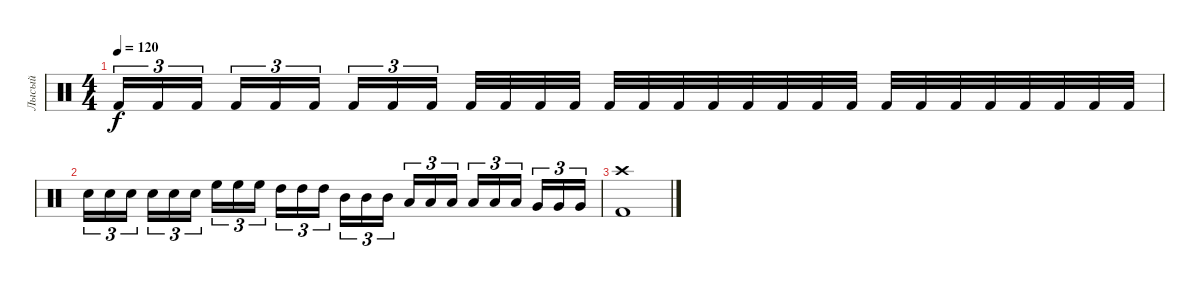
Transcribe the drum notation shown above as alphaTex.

\track ("Лысый" "Лысый") {instrument percussion}
\staff {score}
\articulation defaults
\ts (4 4)
\tempo 120
\clef neutral
\ks c "Kick (hit) 2".16{tu (3 2) dy f} "Kick (hit) 2".16{tu (3 2)} "Kick (hit) 2".16{tu (3 2) beam splitsecondary} "Kick (hit) 2".16{tu (3 2)} "Kick (hit) 2".16{tu (3 2)} "Kick (hit) 2".16{tu (3 2)} "Kick (hit) 2".16{tu (3 2)} "Kick (hit) 2".16{tu (3 2)} "Kick (hit) 2".16{tu (3 2) beam splitsecondary} "Kick (hit) 2".32 "Kick (hit) 2".32 "Kick (hit) 2".32 "Kick (hit) 2".32 "Kick (hit) 2".32 "Kick (hit) 2".32 "Kick (hit) 2".32 "Kick (hit) 2".32 "Kick (hit) 2".32 "Kick (hit) 2".32 "Kick (hit) 2".32 "Kick (hit) 2".32 "Kick (hit) 2".32 "Kick (hit) 2".32 "Kick (hit) 2".32 "Kick (hit) 2".32 "Kick (hit) 2".32 "Kick (hit) 2".32 "Kick (hit) 2".32 "Kick (hit) 2".32
|
"Snare (hit) 2".16{tu (3 2)} "Snare (hit) 2".16{tu (3 2)} "Snare (hit) 2".16{tu (3 2) beam splitsecondary} "Snare (hit) 2".16{tu (3 2)} "Snare (hit) 2".16{tu (3 2)} "Snare (hit) 2".16{tu (3 2)} "High Floor Tom (hit)".16{tu (3 2)} "High Floor Tom (hit)".16{tu (3 2)} "High Floor Tom (hit)".16{tu (3 2) beam splitsecondary} "High Tom (hit)".16{tu (3 2)} "High Tom (hit)".16{tu (3 2)} "High Tom (hit)".16{tu (3 2)} "Mid Tom (hit)".16{tu (3 2)} "Mid Tom (hit)".16{tu (3 2)} "Mid Tom (hit)".16{tu (3 2) beam splitsecondary} "Low Tom (hit)".16{tu (3 2)} "Low Tom (hit)".16{tu (3 2)} "Low Tom (hit)".16{tu (3 2)} "Low Tom (hit)".16{tu (3 2)} "Low Tom (hit)".16{tu (3 2)} "Low Tom (hit)".16{tu (3 2) beam splitsecondary} "Very Low Tom (hit)".16{tu (3 2)} "Very Low Tom (hit)".16{tu (3 2)} "Very Low Tom (hit)".16{tu (3 2)} |
("Crash high (hit)" "Kick (hit) 2").1
